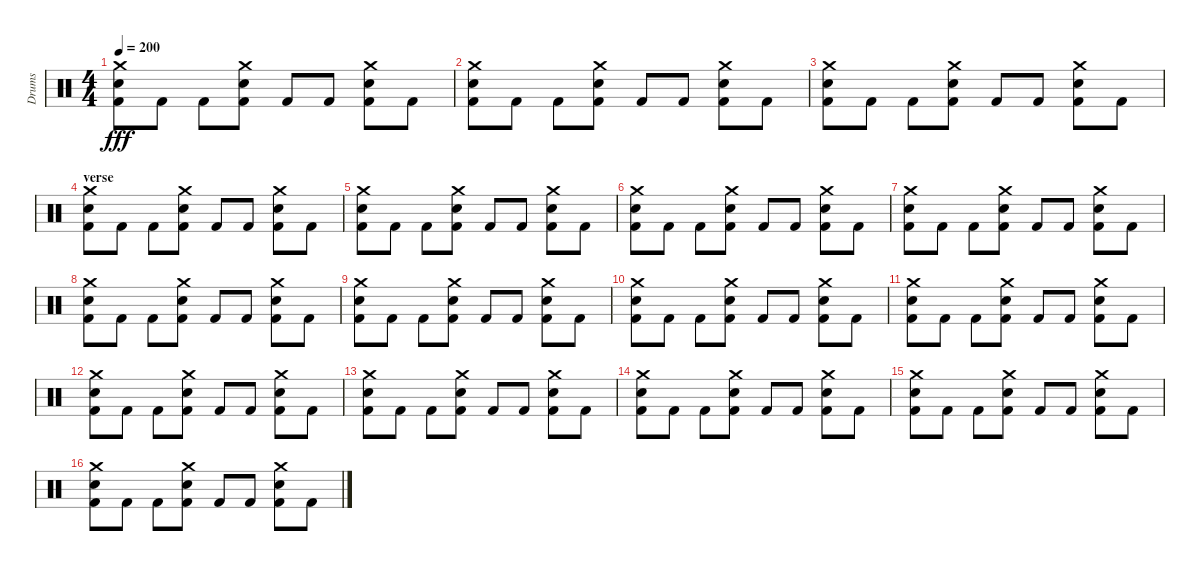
\track ("Drums" "Drums") {instrument percussion}
\staff {score}
\articulation defaults
\ts (4 4)
\tempo 200
\clef neutral
\ks c
("Crash medium (hit)" "Electric Snare (hit)" "Kick (hit) 2").8{dy fff} "Kick (hit) 2".8 "Kick (hit) 2".8 ("Crash medium (hit)" "Electric Snare (hit)" "Kick (hit) 2").8 "Kick (hit) 2".8 "Kick (hit) 2".8 ("Crash medium (hit)" "Electric Snare (hit)" "Kick (hit) 2").8 "Kick (hit) 2".8 |
("Crash medium (hit)" "Electric Snare (hit)" "Kick (hit) 2").8 "Kick (hit) 2".8 "Kick (hit) 2".8 ("Crash medium (hit)" "Electric Snare (hit)" "Kick (hit) 2").8 "Kick (hit) 2".8 "Kick (hit) 2".8 ("Crash medium (hit)" "Electric Snare (hit)" "Kick (hit) 2").8 "Kick (hit) 2".8 |
("Crash medium (hit)" "Electric Snare (hit)" "Kick (hit) 2").8 "Kick (hit) 2".8 "Kick (hit) 2".8 ("Crash medium (hit)" "Electric Snare (hit)" "Kick (hit) 2").8 "Kick (hit) 2".8 "Kick (hit) 2".8 ("Crash medium (hit)" "Electric Snare (hit)" "Kick (hit) 2").8 "Kick (hit) 2".8 |
\section ("" "verse")
("Crash medium (hit)" "Electric Snare (hit)" "Kick (hit) 2").8 "Kick (hit) 2".8 "Kick (hit) 2".8 ("Crash medium (hit)" "Electric Snare (hit)" "Kick (hit) 2").8 "Kick (hit) 2".8 "Kick (hit) 2".8 ("Crash medium (hit)" "Electric Snare (hit)" "Kick (hit) 2").8 "Kick (hit) 2".8 |
("Crash medium (hit)" "Electric Snare (hit)" "Kick (hit) 2").8 "Kick (hit) 2".8 "Kick (hit) 2".8 ("Crash medium (hit)" "Electric Snare (hit)" "Kick (hit) 2").8 "Kick (hit) 2".8 "Kick (hit) 2".8 ("Crash medium (hit)" "Electric Snare (hit)" "Kick (hit) 2").8 "Kick (hit) 2".8 |
("Crash medium (hit)" "Electric Snare (hit)" "Kick (hit) 2").8 "Kick (hit) 2".8 "Kick (hit) 2".8 ("Crash medium (hit)" "Electric Snare (hit)" "Kick (hit) 2").8 "Kick (hit) 2".8 "Kick (hit) 2".8 ("Crash medium (hit)" "Electric Snare (hit)" "Kick (hit) 2").8 "Kick (hit) 2".8 |
("Crash medium (hit)" "Electric Snare (hit)" "Kick (hit) 2").8 "Kick (hit) 2".8 "Kick (hit) 2".8 ("Crash medium (hit)" "Electric Snare (hit)" "Kick (hit) 2").8 "Kick (hit) 2".8 "Kick (hit) 2".8 ("Crash medium (hit)" "Electric Snare (hit)" "Kick (hit) 2").8 "Kick (hit) 2".8 |
("Crash medium (hit)" "Electric Snare (hit)" "Kick (hit) 2").8 "Kick (hit) 2".8 "Kick (hit) 2".8 ("Crash medium (hit)" "Electric Snare (hit)" "Kick (hit) 2").8 "Kick (hit) 2".8 "Kick (hit) 2".8 ("Crash medium (hit)" "Electric Snare (hit)" "Kick (hit) 2").8 "Kick (hit) 2".8 |
("Crash medium (hit)" "Electric Snare (hit)" "Kick (hit) 2").8 "Kick (hit) 2".8 "Kick (hit) 2".8 ("Crash medium (hit)" "Electric Snare (hit)" "Kick (hit) 2").8 "Kick (hit) 2".8 "Kick (hit) 2".8 ("Crash medium (hit)" "Electric Snare (hit)" "Kick (hit) 2").8 "Kick (hit) 2".8 |
("Crash medium (hit)" "Electric Snare (hit)" "Kick (hit) 2").8 "Kick (hit) 2".8 "Kick (hit) 2".8 ("Crash medium (hit)" "Electric Snare (hit)" "Kick (hit) 2").8 "Kick (hit) 2".8 "Kick (hit) 2".8 ("Crash medium (hit)" "Electric Snare (hit)" "Kick (hit) 2").8 "Kick (hit) 2".8 |
("Crash medium (hit)" "Electric Snare (hit)" "Kick (hit) 2").8 "Kick (hit) 2".8 "Kick (hit) 2".8 ("Crash medium (hit)" "Electric Snare (hit)" "Kick (hit) 2").8 "Kick (hit) 2".8 "Kick (hit) 2".8 ("Crash medium (hit)" "Electric Snare (hit)" "Kick (hit) 2").8 "Kick (hit) 2".8 |
("Crash medium (hit)" "Electric Snare (hit)" "Kick (hit) 2").8 "Kick (hit) 2".8 "Kick (hit) 2".8 ("Crash medium (hit)" "Electric Snare (hit)" "Kick (hit) 2").8 "Kick (hit) 2".8 "Kick (hit) 2".8 ("Crash medium (hit)" "Electric Snare (hit)" "Kick (hit) 2").8 "Kick (hit) 2".8 |
("Crash medium (hit)" "Electric Snare (hit)" "Kick (hit) 2").8 "Kick (hit) 2".8 "Kick (hit) 2".8 ("Crash medium (hit)" "Electric Snare (hit)" "Kick (hit) 2").8 "Kick (hit) 2".8 "Kick (hit) 2".8 ("Crash medium (hit)" "Electric Snare (hit)" "Kick (hit) 2").8 "Kick (hit) 2".8 |
("Crash medium (hit)" "Electric Snare (hit)" "Kick (hit) 2").8 "Kick (hit) 2".8 "Kick (hit) 2".8 ("Crash medium (hit)" "Electric Snare (hit)" "Kick (hit) 2").8 "Kick (hit) 2".8 "Kick (hit) 2".8 ("Crash medium (hit)" "Electric Snare (hit)" "Kick (hit) 2").8 "Kick (hit) 2".8 |
("Crash medium (hit)" "Electric Snare (hit)" "Kick (hit) 2").8 "Kick (hit) 2".8 "Kick (hit) 2".8 ("Crash medium (hit)" "Electric Snare (hit)" "Kick (hit) 2").8 "Kick (hit) 2".8 "Kick (hit) 2".8 ("Crash medium (hit)" "Electric Snare (hit)" "Kick (hit) 2").8 "Kick (hit) 2".8 |
("Crash medium (hit)" "Electric Snare (hit)" "Kick (hit) 2").8 "Kick (hit) 2".8 "Kick (hit) 2".8 ("Crash medium (hit)" "Electric Snare (hit)" "Kick (hit) 2").8 "Kick (hit) 2".8 "Kick (hit) 2".8 ("Crash medium (hit)" "Electric Snare (hit)" "Kick (hit) 2").8 "Kick (hit) 2".8
